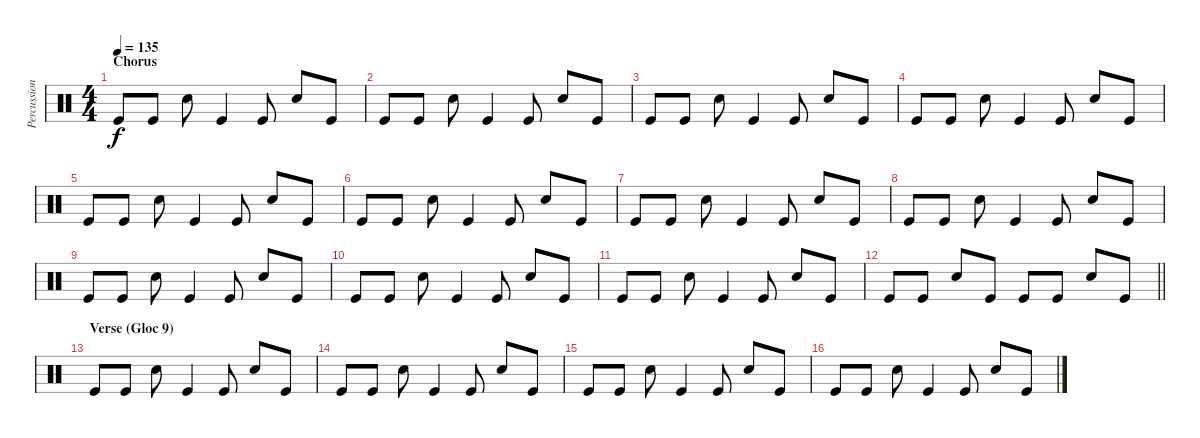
\track ("Percussion" "Percussion") {instrument percussion}
\staff {score}
\articulation defaults
\ts (4 4)
\section ("" "Chorus")
\tempo 135
\clef neutral
\ks c "Kick (hit)".8{dy f} "Kick (hit)".8 "Snare (hit) 2".8 "Kick (hit)".4 "Kick (hit)".8 "Snare (hit) 2".8 "Kick (hit)".8
|
"Kick (hit)".8 "Kick (hit)".8 "Snare (hit) 2".8 "Kick (hit)".4 "Kick (hit)".8 "Snare (hit) 2".8 "Kick (hit)".8 |
"Kick (hit)".8 "Kick (hit)".8 "Snare (hit) 2".8 "Kick (hit)".4 "Kick (hit)".8 "Snare (hit) 2".8 "Kick (hit)".8 |
"Kick (hit)".8 "Kick (hit)".8 "Snare (hit) 2".8 "Kick (hit)".4 "Kick (hit)".8 "Snare (hit) 2".8 "Kick (hit)".8 |
"Kick (hit)".8 "Kick (hit)".8 "Snare (hit) 2".8 "Kick (hit)".4 "Kick (hit)".8 "Snare (hit) 2".8 "Kick (hit)".8 |
"Kick (hit)".8 "Kick (hit)".8 "Snare (hit) 2".8 "Kick (hit)".4 "Kick (hit)".8 "Snare (hit) 2".8 "Kick (hit)".8 |
"Kick (hit)".8 "Kick (hit)".8 "Snare (hit) 2".8 "Kick (hit)".4 "Kick (hit)".8 "Snare (hit) 2".8 "Kick (hit)".8 |
"Kick (hit)".8 "Kick (hit)".8 "Snare (hit) 2".8 "Kick (hit)".4 "Kick (hit)".8 "Snare (hit) 2".8 "Kick (hit)".8 |
"Kick (hit)".8 "Kick (hit)".8 "Snare (hit) 2".8 "Kick (hit)".4 "Kick (hit)".8 "Snare (hit) 2".8 "Kick (hit)".8 |
"Kick (hit)".8 "Kick (hit)".8 "Snare (hit) 2".8 "Kick (hit)".4 "Kick (hit)".8 "Snare (hit) 2".8 "Kick (hit)".8 |
"Kick (hit)".8 "Kick (hit)".8 "Snare (hit) 2".8 "Kick (hit)".4 "Kick (hit)".8 "Snare (hit) 2".8 "Kick (hit)".8 |
\barLineRight lightlight "Kick (hit)".8 "Kick (hit)".8 "Snare (hit) 2".8 "Kick (hit)".8 "Kick (hit)".8 "Kick (hit)".8 "Snare (hit) 2".8 "Kick (hit)".8
|
\section ("" "Verse (Gloc 9)")
"Kick (hit)".8 "Kick (hit)".8 "Snare (hit) 2".8 "Kick (hit)".4 "Kick (hit)".8 "Snare (hit) 2".8 "Kick (hit)".8 |
"Kick (hit)".8 "Kick (hit)".8 "Snare (hit) 2".8 "Kick (hit)".4 "Kick (hit)".8 "Snare (hit) 2".8 "Kick (hit)".8 |
"Kick (hit)".8 "Kick (hit)".8 "Snare (hit) 2".8 "Kick (hit)".4 "Kick (hit)".8 "Snare (hit) 2".8 "Kick (hit)".8 |
"Kick (hit)".8 "Kick (hit)".8 "Snare (hit) 2".8 "Kick (hit)".4 "Kick (hit)".8 "Snare (hit) 2".8 "Kick (hit)".8
